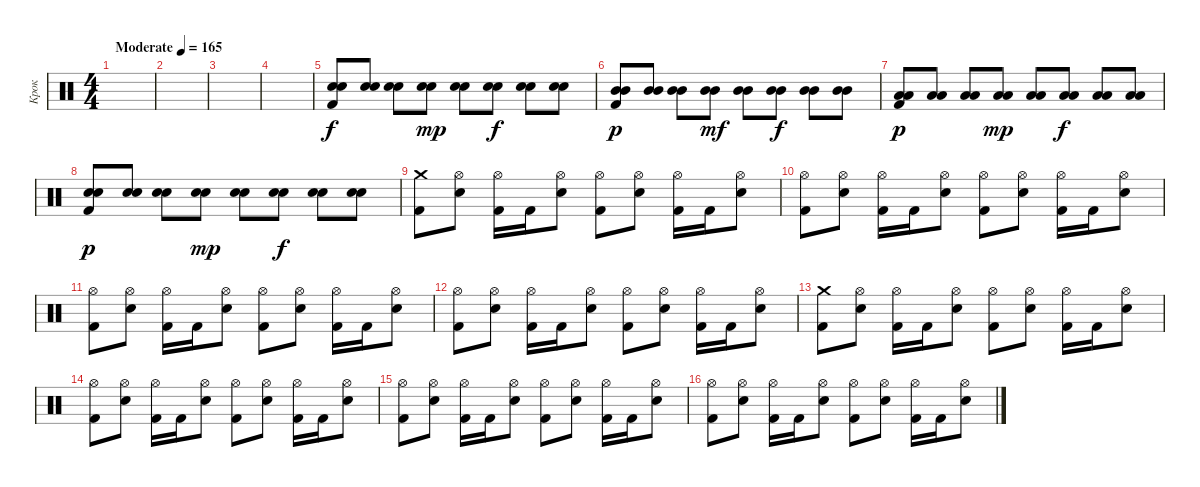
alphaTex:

\track ("Крок" "Крок") {instrument percussion}
\staff {score}
\articulation defaults
\ts (4 4)
\tempo (165 "Moderate")
\clef neutral
\ks c
|
|
|
|
("Electric Snare (hit)" "Electric Snare (hit)" "Kick (hit) 2").8 ("Electric Snare (hit)" "Electric Snare (hit)").8 ("Electric Snare (hit)" "Electric Snare (hit)").8 ("Electric Snare (hit)" "Electric Snare (hit)").8{dy mp} ("Electric Snare (hit)" "Electric Snare (hit)").8 ("Electric Snare (hit)" "Electric Snare (hit)").8{dy f} ("Electric Snare (hit)" "Electric Snare (hit)").8 ("Electric Snare (hit)" "Electric Snare (hit)").8 |
("Mid Tom (hit)" "Mid Tom (hit)" "Kick (hit) 2").8{dy p} ("Mid Tom (hit)" "Mid Tom (hit)").8 ("Mid Tom (hit)" "Mid Tom (hit)").8 ("Mid Tom (hit)" "Mid Tom (hit)").8{dy mf} ("Mid Tom (hit)" "Mid Tom (hit)").8 ("Mid Tom (hit)" "Mid Tom (hit)").8{dy f} ("Mid Tom (hit)" "Mid Tom (hit)").8 ("Mid Tom (hit)" "Mid Tom (hit)").8 |
("Low Tom (hit)" "Low Tom (hit)" "Kick (hit) 2").8{dy p} ("Low Tom (hit)" "Low Tom (hit)").8 ("Low Tom (hit)" "Low Tom (hit)").8 ("Low Tom (hit)" "Low Tom (hit)").8{dy mp} ("Low Tom (hit)" "Low Tom (hit)").8 ("Low Tom (hit)" "Low Tom (hit)").8{dy f} ("Low Tom (hit)" "Low Tom (hit)").8 ("Low Tom (hit)" "Low Tom (hit)").8 |
("Electric Snare (hit)" "Electric Snare (hit)" "Kick (hit) 2").8{dy p} ("Electric Snare (hit)" "Electric Snare (hit)").8 ("Electric Snare (hit)" "Electric Snare (hit)").8 ("Electric Snare (hit)" "Electric Snare (hit)").8{dy mp} ("Electric Snare (hit)" "Electric Snare (hit)").8 ("Electric Snare (hit)" "Electric Snare (hit)").8{dy f} ("Electric Snare (hit)" "Electric Snare (hit)").8 ("Electric Snare (hit)" "Electric Snare (hit)").8 |
("Crash medium (hit)" "Kick (hit) 2").8 ("Hi-Hat (open)" "Electric Snare (hit)").8 ("Hi-Hat (open)" "Kick (hit) 2").16 "Kick (hit) 2".16 ("Hi-Hat (open)" "Electric Snare (hit)").8 ("Hi-Hat (open)" "Kick (hit) 2").8 ("Hi-Hat (open)" "Electric Snare (hit)").8 ("Hi-Hat (open)" "Kick (hit) 2").16 "Kick (hit) 2".16 ("Hi-Hat (open)" "Electric Snare (hit)").8 |
("Hi-Hat (open)" "Kick (hit) 2").8 ("Hi-Hat (open)" "Electric Snare (hit)").8 ("Hi-Hat (open)" "Kick (hit) 2").16 "Kick (hit) 2".16 ("Hi-Hat (open)" "Electric Snare (hit)").8 ("Hi-Hat (open)" "Kick (hit) 2").8 ("Hi-Hat (open)" "Electric Snare (hit)").8 ("Hi-Hat (open)" "Kick (hit) 2").16 "Kick (hit) 2".16 ("Hi-Hat (open)" "Electric Snare (hit)").8 |
("Hi-Hat (open)" "Kick (hit) 2").8 ("Hi-Hat (open)" "Electric Snare (hit)").8 ("Hi-Hat (open)" "Kick (hit) 2").16 "Kick (hit) 2".16 ("Hi-Hat (open)" "Electric Snare (hit)").8 ("Hi-Hat (open)" "Kick (hit) 2").8 ("Hi-Hat (open)" "Electric Snare (hit)").8 ("Hi-Hat (open)" "Kick (hit) 2").16 "Kick (hit) 2".16 ("Hi-Hat (open)" "Electric Snare (hit)").8 |
("Hi-Hat (open)" "Kick (hit) 2").8 ("Hi-Hat (open)" "Electric Snare (hit)").8 ("Hi-Hat (open)" "Kick (hit) 2").16 "Kick (hit) 2".16 ("Hi-Hat (open)" "Electric Snare (hit)").8 ("Hi-Hat (open)" "Kick (hit) 2").8 ("Hi-Hat (open)" "Electric Snare (hit)").8 ("Hi-Hat (open)" "Kick (hit) 2").16 "Kick (hit) 2".16 ("Hi-Hat (open)" "Electric Snare (hit)").8 |
("Crash medium (hit)" "Kick (hit) 2").8 ("Hi-Hat (open)" "Electric Snare (hit)").8 ("Hi-Hat (open)" "Kick (hit) 2").16 "Kick (hit) 2".16 ("Hi-Hat (open)" "Electric Snare (hit)").8 ("Hi-Hat (open)" "Kick (hit) 2").8 ("Hi-Hat (open)" "Electric Snare (hit)").8 ("Hi-Hat (open)" "Kick (hit) 2").16 "Kick (hit) 2".16 ("Hi-Hat (open)" "Electric Snare (hit)").8 |
("Hi-Hat (open)" "Kick (hit) 2").8 ("Hi-Hat (open)" "Electric Snare (hit)").8 ("Hi-Hat (open)" "Kick (hit) 2").16 "Kick (hit) 2".16 ("Hi-Hat (open)" "Electric Snare (hit)").8 ("Hi-Hat (open)" "Kick (hit) 2").8 ("Hi-Hat (open)" "Electric Snare (hit)").8 ("Hi-Hat (open)" "Kick (hit) 2").16 "Kick (hit) 2".16 ("Hi-Hat (open)" "Electric Snare (hit)").8 |
("Hi-Hat (open)" "Kick (hit) 2").8 ("Hi-Hat (open)" "Electric Snare (hit)").8 ("Hi-Hat (open)" "Kick (hit) 2").16 "Kick (hit) 2".16 ("Hi-Hat (open)" "Electric Snare (hit)").8 ("Hi-Hat (open)" "Kick (hit) 2").8 ("Hi-Hat (open)" "Electric Snare (hit)").8 ("Hi-Hat (open)" "Kick (hit) 2").16 "Kick (hit) 2".16 ("Hi-Hat (open)" "Electric Snare (hit)").8 |
("Hi-Hat (open)" "Kick (hit) 2").8 ("Hi-Hat (open)" "Electric Snare (hit)").8 ("Hi-Hat (open)" "Kick (hit) 2").16 "Kick (hit) 2".16 ("Hi-Hat (open)" "Electric Snare (hit)").8 ("Hi-Hat (open)" "Kick (hit) 2").8 ("Hi-Hat (open)" "Electric Snare (hit)").8 ("Hi-Hat (open)" "Kick (hit) 2").16 "Kick (hit) 2".16 ("Hi-Hat (open)" "Electric Snare (hit)").8
